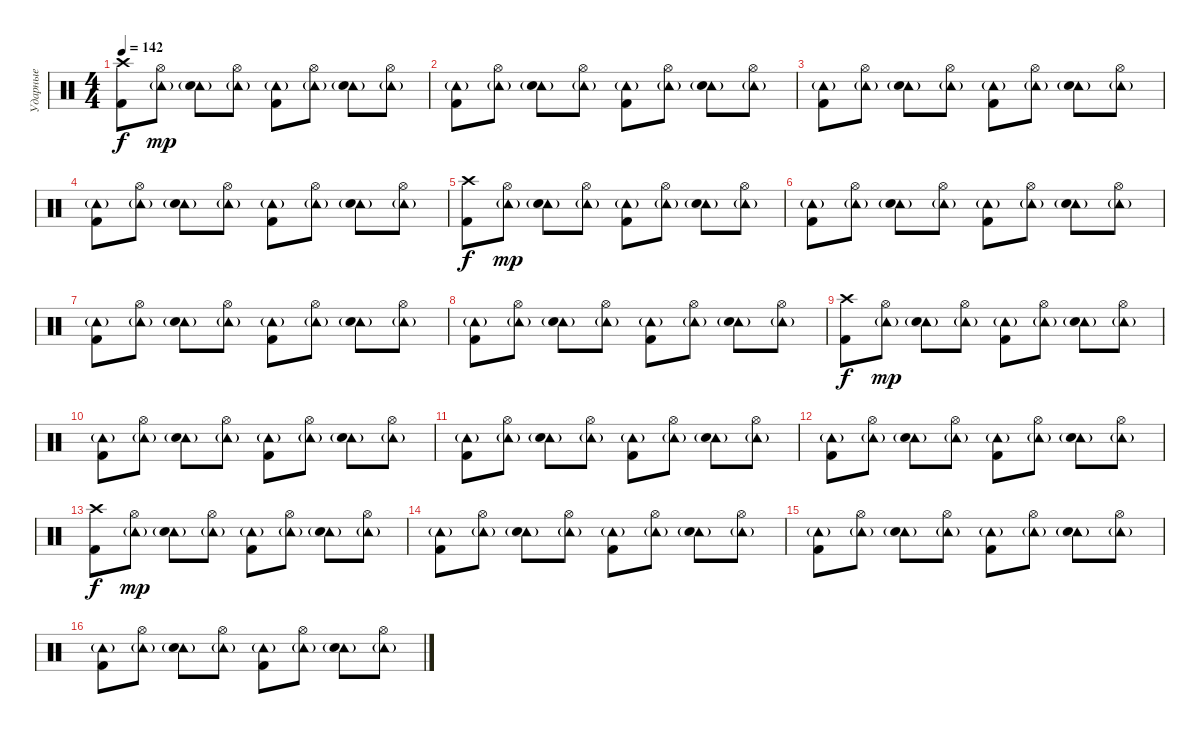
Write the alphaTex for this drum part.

\track ("Ударные" "Ударные") {instrument percussion}
\staff {score}
\articulation defaults
\ts (4 4)
\tempo 142
\clef neutral
\ks c
("Crash high (hit)" "Kick (hit) 2").8{dy f} ("Tambourine (hit)"{g} "Hi-Hat (open)").8{dy mp} ("Tambourine (hit)"{g} "Electric Snare (hit)").8 ("Tambourine (hit)"{g} "Hi-Hat (open)").8 ("Tambourine (hit)"{g} "Kick (hit) 2").8 ("Tambourine (hit)"{g} "Hi-Hat (open)").8 ("Tambourine (hit)"{g} "Electric Snare (hit)").8 ("Tambourine (hit)"{g} "Hi-Hat (open)").8 |
("Tambourine (hit)"{g} "Kick (hit) 2").8 ("Tambourine (hit)"{g} "Hi-Hat (open)").8 ("Tambourine (hit)"{g} "Electric Snare (hit)").8 ("Tambourine (hit)"{g} "Hi-Hat (open)").8 ("Tambourine (hit)"{g} "Kick (hit) 2").8 ("Tambourine (hit)"{g} "Hi-Hat (open)").8 ("Tambourine (hit)"{g} "Electric Snare (hit)").8 ("Tambourine (hit)"{g} "Hi-Hat (open)").8 |
("Tambourine (hit)"{g} "Kick (hit) 2").8 ("Tambourine (hit)"{g} "Hi-Hat (open)").8 ("Tambourine (hit)"{g} "Electric Snare (hit)").8 ("Tambourine (hit)"{g} "Hi-Hat (open)").8 ("Tambourine (hit)"{g} "Kick (hit) 2").8 ("Tambourine (hit)"{g} "Hi-Hat (open)").8 ("Tambourine (hit)"{g} "Electric Snare (hit)").8 ("Tambourine (hit)"{g} "Hi-Hat (open)").8 |
("Tambourine (hit)"{g} "Kick (hit) 2").8 ("Tambourine (hit)"{g} "Hi-Hat (open)").8 ("Tambourine (hit)"{g} "Electric Snare (hit)").8 ("Tambourine (hit)"{g} "Hi-Hat (open)").8 ("Tambourine (hit)"{g} "Kick (hit) 2").8 ("Tambourine (hit)"{g} "Hi-Hat (open)").8 ("Tambourine (hit)"{g} "Electric Snare (hit)").8 ("Tambourine (hit)"{g} "Hi-Hat (open)").8 |
("Crash high (hit)" "Kick (hit) 2").8{dy f} ("Tambourine (hit)"{g} "Hi-Hat (open)").8{dy mp} ("Tambourine (hit)"{g} "Electric Snare (hit)").8 ("Tambourine (hit)"{g} "Hi-Hat (open)").8 ("Tambourine (hit)"{g} "Kick (hit) 2").8 ("Tambourine (hit)"{g} "Hi-Hat (open)").8 ("Tambourine (hit)"{g} "Electric Snare (hit)").8 ("Tambourine (hit)"{g} "Hi-Hat (open)").8 |
("Tambourine (hit)"{g} "Kick (hit) 2").8 ("Tambourine (hit)"{g} "Hi-Hat (open)").8 ("Tambourine (hit)"{g} "Electric Snare (hit)").8 ("Tambourine (hit)"{g} "Hi-Hat (open)").8 ("Tambourine (hit)"{g} "Kick (hit) 2").8 ("Tambourine (hit)"{g} "Hi-Hat (open)").8 ("Tambourine (hit)"{g} "Electric Snare (hit)").8 ("Tambourine (hit)"{g} "Hi-Hat (open)").8 |
("Tambourine (hit)"{g} "Kick (hit) 2").8 ("Tambourine (hit)"{g} "Hi-Hat (open)").8 ("Tambourine (hit)"{g} "Electric Snare (hit)").8 ("Tambourine (hit)"{g} "Hi-Hat (open)").8 ("Tambourine (hit)"{g} "Kick (hit) 2").8 ("Tambourine (hit)"{g} "Hi-Hat (open)").8 ("Tambourine (hit)"{g} "Electric Snare (hit)").8 ("Tambourine (hit)"{g} "Hi-Hat (open)").8 |
("Tambourine (hit)"{g} "Kick (hit) 2").8 ("Tambourine (hit)"{g} "Hi-Hat (open)").8 ("Tambourine (hit)"{g} "Electric Snare (hit)").8 ("Tambourine (hit)"{g} "Hi-Hat (open)").8 ("Tambourine (hit)"{g} "Kick (hit) 2").8 ("Tambourine (hit)"{g} "Hi-Hat (open)").8 ("Tambourine (hit)"{g} "Electric Snare (hit)").8 ("Tambourine (hit)"{g} "Hi-Hat (open)").8 |
("Crash high (hit)" "Kick (hit) 2").8{dy f} ("Tambourine (hit)"{g} "Hi-Hat (open)").8{dy mp} ("Tambourine (hit)"{g} "Electric Snare (hit)").8 ("Tambourine (hit)"{g} "Hi-Hat (open)").8 ("Tambourine (hit)"{g} "Kick (hit) 2").8 ("Tambourine (hit)"{g} "Hi-Hat (open)").8 ("Tambourine (hit)"{g} "Electric Snare (hit)").8 ("Tambourine (hit)"{g} "Hi-Hat (open)").8 |
("Tambourine (hit)"{g} "Kick (hit) 2").8 ("Tambourine (hit)"{g} "Hi-Hat (open)").8 ("Tambourine (hit)"{g} "Electric Snare (hit)").8 ("Tambourine (hit)"{g} "Hi-Hat (open)").8 ("Tambourine (hit)"{g} "Kick (hit) 2").8 ("Tambourine (hit)"{g} "Hi-Hat (open)").8 ("Tambourine (hit)"{g} "Electric Snare (hit)").8 ("Tambourine (hit)"{g} "Hi-Hat (open)").8 |
("Tambourine (hit)"{g} "Kick (hit) 2").8 ("Tambourine (hit)"{g} "Hi-Hat (open)").8 ("Tambourine (hit)"{g} "Electric Snare (hit)").8 ("Tambourine (hit)"{g} "Hi-Hat (open)").8 ("Tambourine (hit)"{g} "Kick (hit) 2").8 ("Tambourine (hit)"{g} "Hi-Hat (open)").8 ("Tambourine (hit)"{g} "Electric Snare (hit)").8 ("Tambourine (hit)"{g} "Hi-Hat (open)").8 |
("Tambourine (hit)"{g} "Kick (hit) 2").8 ("Tambourine (hit)"{g} "Hi-Hat (open)").8 ("Tambourine (hit)"{g} "Electric Snare (hit)").8 ("Tambourine (hit)"{g} "Hi-Hat (open)").8 ("Tambourine (hit)"{g} "Kick (hit) 2").8 ("Tambourine (hit)"{g} "Hi-Hat (open)").8 ("Tambourine (hit)"{g} "Electric Snare (hit)").8 ("Tambourine (hit)"{g} "Hi-Hat (open)").8 |
("Crash high (hit)" "Kick (hit) 2").8{dy f} ("Tambourine (hit)"{g} "Hi-Hat (open)").8{dy mp} ("Tambourine (hit)"{g} "Electric Snare (hit)").8 ("Tambourine (hit)"{g} "Hi-Hat (open)").8 ("Tambourine (hit)"{g} "Kick (hit) 2").8 ("Tambourine (hit)"{g} "Hi-Hat (open)").8 ("Tambourine (hit)"{g} "Electric Snare (hit)").8 ("Tambourine (hit)"{g} "Hi-Hat (open)").8 |
("Tambourine (hit)"{g} "Kick (hit) 2").8 ("Tambourine (hit)"{g} "Hi-Hat (open)").8 ("Tambourine (hit)"{g} "Electric Snare (hit)").8 ("Tambourine (hit)"{g} "Hi-Hat (open)").8 ("Tambourine (hit)"{g} "Kick (hit) 2").8 ("Tambourine (hit)"{g} "Hi-Hat (open)").8 ("Tambourine (hit)"{g} "Electric Snare (hit)").8 ("Tambourine (hit)"{g} "Hi-Hat (open)").8 |
("Tambourine (hit)"{g} "Kick (hit) 2").8 ("Tambourine (hit)"{g} "Hi-Hat (open)").8 ("Tambourine (hit)"{g} "Electric Snare (hit)").8 ("Tambourine (hit)"{g} "Hi-Hat (open)").8 ("Tambourine (hit)"{g} "Kick (hit) 2").8 ("Tambourine (hit)"{g} "Hi-Hat (open)").8 ("Tambourine (hit)"{g} "Electric Snare (hit)").8 ("Tambourine (hit)"{g} "Hi-Hat (open)").8 |
("Tambourine (hit)"{g} "Kick (hit) 2").8 ("Tambourine (hit)"{g} "Hi-Hat (open)").8 ("Tambourine (hit)"{g} "Electric Snare (hit)").8 ("Tambourine (hit)"{g} "Hi-Hat (open)").8 ("Tambourine (hit)"{g} "Kick (hit) 2").8 ("Tambourine (hit)"{g} "Hi-Hat (open)").8 ("Tambourine (hit)"{g} "Electric Snare (hit)").8 ("Tambourine (hit)"{g} "Hi-Hat (open)").8
